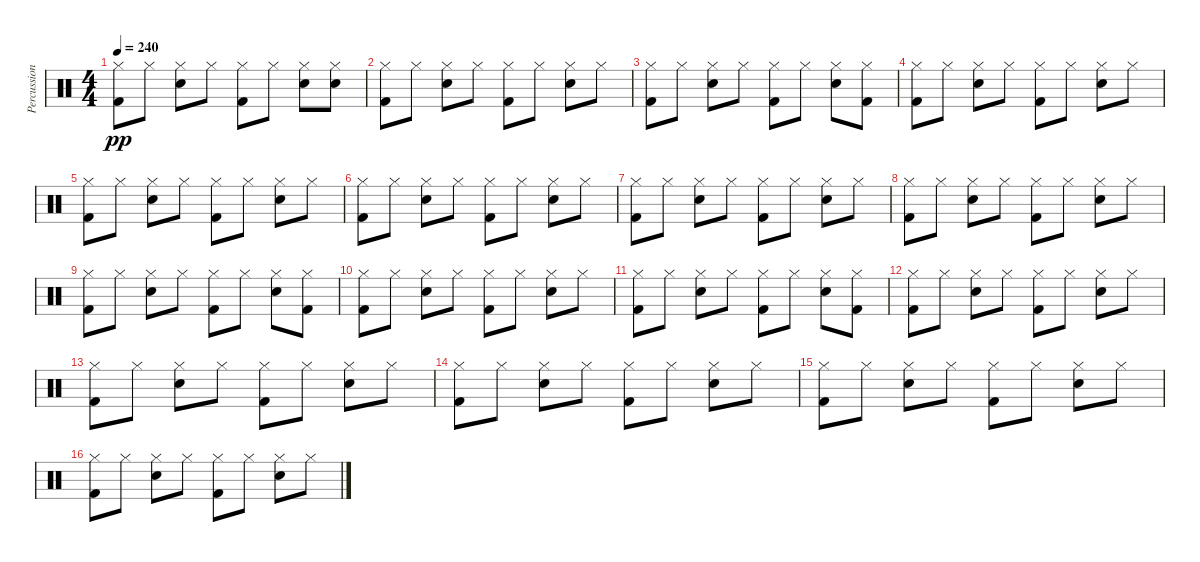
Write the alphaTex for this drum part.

\track ("Percussion" "Percussion") {instrument percussion}
\staff {score}
\articulation defaults
\ts (4 4)
\tempo 240
\clef neutral
\ks c
("Kick (hit) 2" "Hi-Hat (closed)").8{dy pp} "Hi-Hat (closed)".8 ("Electric Snare (hit)" "Hi-Hat (closed)").8 "Hi-Hat (closed)".8 ("Kick (hit) 2" "Hi-Hat (closed)").8 "Hi-Hat (closed)".8 ("Electric Snare (hit)" "Hi-Hat (closed)").8 ("Electric Snare (hit)" "Hi-Hat (closed)").8 |
("Kick (hit) 2" "Hi-Hat (closed)").8 "Hi-Hat (closed)".8 ("Electric Snare (hit)" "Hi-Hat (closed)").8 "Hi-Hat (closed)".8 ("Kick (hit) 2" "Hi-Hat (closed)").8 "Hi-Hat (closed)".8 ("Electric Snare (hit)" "Hi-Hat (closed)").8 "Hi-Hat (closed)".8 |
("Kick (hit) 2" "Hi-Hat (closed)").8 "Hi-Hat (closed)".8 ("Electric Snare (hit)" "Hi-Hat (closed)").8 "Hi-Hat (closed)".8 ("Kick (hit) 2" "Hi-Hat (closed)").8 "Hi-Hat (closed)".8 ("Electric Snare (hit)" "Hi-Hat (closed)").8 ("Kick (hit) 2" "Hi-Hat (closed)").8 |
("Kick (hit) 2" "Hi-Hat (closed)").8 "Hi-Hat (closed)".8 ("Electric Snare (hit)" "Hi-Hat (closed)").8 "Hi-Hat (closed)".8 ("Kick (hit) 2" "Hi-Hat (closed)").8 "Hi-Hat (closed)".8 ("Electric Snare (hit)" "Hi-Hat (closed)").8 "Hi-Hat (closed)".8 |
("Kick (hit) 2" "Hi-Hat (closed)").8 "Hi-Hat (closed)".8 ("Electric Snare (hit)" "Hi-Hat (closed)").8 "Hi-Hat (closed)".8 ("Kick (hit) 2" "Hi-Hat (closed)").8 "Hi-Hat (closed)".8 ("Electric Snare (hit)" "Hi-Hat (closed)").8 "Hi-Hat (closed)".8 |
("Kick (hit) 2" "Hi-Hat (closed)").8 "Hi-Hat (closed)".8 ("Electric Snare (hit)" "Hi-Hat (closed)").8 "Hi-Hat (closed)".8 ("Kick (hit) 2" "Hi-Hat (closed)").8 "Hi-Hat (closed)".8 ("Electric Snare (hit)" "Hi-Hat (closed)").8 "Hi-Hat (closed)".8 |
("Kick (hit) 2" "Hi-Hat (closed)").8 "Hi-Hat (closed)".8 ("Electric Snare (hit)" "Hi-Hat (closed)").8 "Hi-Hat (closed)".8 ("Kick (hit) 2" "Hi-Hat (closed)").8 "Hi-Hat (closed)".8 ("Electric Snare (hit)" "Hi-Hat (closed)").8 "Hi-Hat (closed)".8 |
("Kick (hit) 2" "Hi-Hat (closed)").8 "Hi-Hat (closed)".8 ("Electric Snare (hit)" "Hi-Hat (closed)").8 "Hi-Hat (closed)".8 ("Kick (hit) 2" "Hi-Hat (closed)").8 "Hi-Hat (closed)".8 ("Electric Snare (hit)" "Hi-Hat (closed)").8 "Hi-Hat (closed)".8 |
("Kick (hit) 2" "Hi-Hat (closed)").8 "Hi-Hat (closed)".8 ("Electric Snare (hit)" "Hi-Hat (closed)").8 "Hi-Hat (closed)".8 ("Kick (hit) 2" "Hi-Hat (closed)").8 "Hi-Hat (closed)".8 ("Electric Snare (hit)" "Hi-Hat (closed)").8 ("Kick (hit) 2" "Hi-Hat (closed)").8 |
("Kick (hit) 2" "Hi-Hat (closed)").8 "Hi-Hat (closed)".8 ("Electric Snare (hit)" "Hi-Hat (closed)").8 "Hi-Hat (closed)".8 ("Kick (hit) 2" "Hi-Hat (closed)").8 "Hi-Hat (closed)".8 ("Electric Snare (hit)" "Hi-Hat (closed)").8 "Hi-Hat (closed)".8 |
("Kick (hit) 2" "Hi-Hat (closed)").8 "Hi-Hat (closed)".8 ("Electric Snare (hit)" "Hi-Hat (closed)").8 "Hi-Hat (closed)".8 ("Kick (hit) 2" "Hi-Hat (closed)").8 "Hi-Hat (closed)".8 ("Electric Snare (hit)" "Hi-Hat (closed)").8 ("Kick (hit) 2" "Hi-Hat (closed)").8 |
("Kick (hit) 2" "Hi-Hat (closed)").8 "Hi-Hat (closed)".8 ("Electric Snare (hit)" "Hi-Hat (closed)").8 "Hi-Hat (closed)".8 ("Kick (hit) 2" "Hi-Hat (closed)").8 "Hi-Hat (closed)".8 ("Electric Snare (hit)" "Hi-Hat (closed)").8 "Hi-Hat (closed)".8 |
("Kick (hit) 2" "Hi-Hat (closed)").8 "Hi-Hat (closed)".8 ("Electric Snare (hit)" "Hi-Hat (closed)").8 "Hi-Hat (closed)".8 ("Kick (hit) 2" "Hi-Hat (closed)").8 "Hi-Hat (closed)".8 ("Electric Snare (hit)" "Hi-Hat (closed)").8 "Hi-Hat (closed)".8 |
("Kick (hit) 2" "Hi-Hat (closed)").8 "Hi-Hat (closed)".8 ("Electric Snare (hit)" "Hi-Hat (closed)").8 "Hi-Hat (closed)".8 ("Kick (hit) 2" "Hi-Hat (closed)").8 "Hi-Hat (closed)".8 ("Electric Snare (hit)" "Hi-Hat (closed)").8 "Hi-Hat (closed)".8 |
("Kick (hit) 2" "Hi-Hat (closed)").8 "Hi-Hat (closed)".8 ("Electric Snare (hit)" "Hi-Hat (closed)").8 "Hi-Hat (closed)".8 ("Kick (hit) 2" "Hi-Hat (closed)").8 "Hi-Hat (closed)".8 ("Electric Snare (hit)" "Hi-Hat (closed)").8 "Hi-Hat (closed)".8 |
("Kick (hit) 2" "Hi-Hat (closed)").8 "Hi-Hat (closed)".8 ("Electric Snare (hit)" "Hi-Hat (closed)").8 "Hi-Hat (closed)".8 ("Kick (hit) 2" "Hi-Hat (closed)").8 "Hi-Hat (closed)".8 ("Electric Snare (hit)" "Hi-Hat (closed)").8 "Hi-Hat (closed)".8
